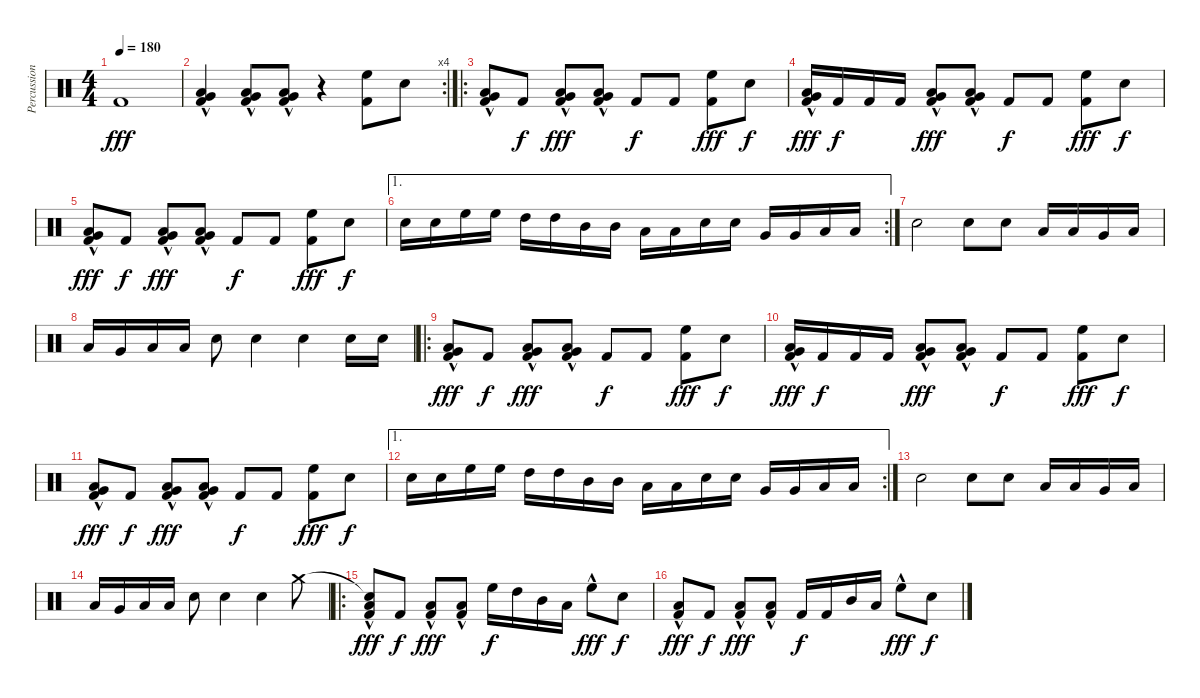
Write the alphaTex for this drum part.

\track ("Percussion" "Percussion") {instrument percussion}
\staff {score}
\articulation defaults
\ts (4 4)
\tempo 180
\clef neutral
\ks c "Kick (hit) 2".1{dy fff}
|
\rc 4
("Low Tom (hit)" "Very Low Tom (hit)"{hac} "Kick (hit) 2").4 ("Low Tom (hit)" "Very Low Tom (hit)"{hac} "Kick (hit) 2").8 ("Low Tom (hit)" "Very Low Tom (hit)"{hac} "Kick (hit) 2").8 r.4 ("High Floor Tom (hit)" "Kick (hit) 2").8 "Snare (hit) 2".8 |
\ro
("Low Tom (hit)"{hac} "Very Low Tom (hit)"{hac} "Kick (hit) 2").8 "Kick (hit) 2".8{dy f} ("Low Tom (hit)"{hac} "Very Low Tom (hit)"{hac} "Kick (hit) 2").8{dy fff} ("Low Tom (hit)"{hac} "Very Low Tom (hit)"{hac} "Kick (hit) 2").8 "Kick (hit) 2".8{dy f} "Kick (hit) 2".8 ("High Floor Tom (hit)" "Kick (hit) 2").8{dy fff} "Snare (hit) 2".8{dy f} |
("Low Tom (hit)"{hac} "Very Low Tom (hit)"{hac} "Kick (hit) 2").16{dy fff} "Kick (hit) 2".16{dy f} "Kick (hit) 2".16 "Kick (hit) 2".16 ("Low Tom (hit)"{hac} "Very Low Tom (hit)"{hac} "Kick (hit) 2").8{dy fff} ("Low Tom (hit)"{hac} "Very Low Tom (hit)"{hac} "Kick (hit) 2").8 "Kick (hit) 2".8{dy f} "Kick (hit) 2".8 ("High Floor Tom (hit)" "Kick (hit) 2").8{dy fff} "Snare (hit) 2".8{dy f} |
("Low Tom (hit)"{hac} "Very Low Tom (hit)"{hac} "Kick (hit) 2").8{dy fff} "Kick (hit) 2".8{dy f} ("Low Tom (hit)"{hac} "Very Low Tom (hit)"{hac} "Kick (hit) 2").8{dy fff} ("Low Tom (hit)"{hac} "Very Low Tom (hit)"{hac} "Kick (hit) 2").8 "Kick (hit) 2".8{dy f} "Kick (hit) 2".8 ("High Floor Tom (hit)" "Kick (hit) 2").8{dy fff} "Snare (hit) 2".8{dy f} |
\ae 1
\rc 2 "Snare (hit) 2".16 "Snare (hit) 2".16 "High Floor Tom (hit)".16 "High Floor Tom (hit)".16 "High Tom (hit)".16 "High Tom (hit)".16 "Mid Tom (hit)".16 "Mid Tom (hit)".16 "Low Tom (hit)".16 "Low Tom (hit)".16 "Snare (hit) 2".16 "Snare (hit) 2".16 "Very Low Tom (hit)".16 "Very Low Tom (hit)".16 "Low Floor Tom (hit)".16 "Low Floor Tom (hit)".16
|
"Snare (hit) 2".2 "Snare (hit) 2".8 "Snare (hit) 2".8 "Low Tom (hit)".16 "Low Tom (hit)".16 "Very Low Tom (hit)".16 "Low Floor Tom (hit)".16 |
"Low Floor Tom (hit)".16 "Very Low Tom (hit)".16 "Low Tom (hit)".16 "Low Tom (hit)".16 "Snare (hit) 2".8 "Snare (hit) 2".4 "Snare (hit) 2".4 "Snare (hit) 2".16 "Snare (hit) 2".16 |
\ro
("Low Tom (hit)"{hac} "Very Low Tom (hit)"{hac} "Kick (hit) 2").8{dy fff} "Kick (hit) 2".8{dy f} ("Low Tom (hit)"{hac} "Very Low Tom (hit)"{hac} "Kick (hit) 2").8{dy fff} ("Low Tom (hit)"{hac} "Very Low Tom (hit)"{hac} "Kick (hit) 2").8 "Kick (hit) 2".8{dy f} "Kick (hit) 2".8 ("High Floor Tom (hit)" "Kick (hit) 2").8{dy fff} "Snare (hit) 2".8{dy f} |
("Low Tom (hit)"{hac} "Very Low Tom (hit)"{hac} "Kick (hit) 2").16{dy fff} "Kick (hit) 2".16{dy f} "Kick (hit) 2".16 "Kick (hit) 2".16 ("Low Tom (hit)"{hac} "Very Low Tom (hit)"{hac} "Kick (hit) 2").8{dy fff} ("Low Tom (hit)"{hac} "Very Low Tom (hit)"{hac} "Kick (hit) 2").8 "Kick (hit) 2".8{dy f} "Kick (hit) 2".8 ("High Floor Tom (hit)" "Kick (hit) 2").8{dy fff} "Snare (hit) 2".8{dy f} |
("Low Tom (hit)"{hac} "Very Low Tom (hit)"{hac} "Kick (hit) 2").8{dy fff} "Kick (hit) 2".8{dy f} ("Low Tom (hit)"{hac} "Very Low Tom (hit)"{hac} "Kick (hit) 2").8{dy fff} ("Low Tom (hit)"{hac} "Very Low Tom (hit)"{hac} "Kick (hit) 2").8 "Kick (hit) 2".8{dy f} "Kick (hit) 2".8 ("High Floor Tom (hit)" "Kick (hit) 2").8{dy fff} "Snare (hit) 2".8{dy f} |
\ae 1
\rc 2 "Snare (hit) 2".16 "Snare (hit) 2".16 "High Floor Tom (hit)".16 "High Floor Tom (hit)".16 "High Tom (hit)".16 "High Tom (hit)".16 "Mid Tom (hit)".16 "Mid Tom (hit)".16 "Low Tom (hit)".16 "Low Tom (hit)".16 "Snare (hit) 2".16 "Snare (hit) 2".16 "Very Low Tom (hit)".16 "Very Low Tom (hit)".16 "Low Floor Tom (hit)".16 "Low Floor Tom (hit)".16
|
"Snare (hit) 2".2 "Snare (hit) 2".8 "Snare (hit) 2".8 "Low Tom (hit)".16 "Low Tom (hit)".16 "Very Low Tom (hit)".16 "Low Floor Tom (hit)".16 |
"Low Floor Tom (hit)".16 "Very Low Tom (hit)".16 "Low Tom (hit)".16 "Low Tom (hit)".16 "Snare (hit) 2".8 "Snare (hit) 2".4 "Snare (hit) 2".4 "Crash medium (hit)".8 |
\ro
("Snare (hit)"{t} "Low Tom (hit)"{hac} "Kick (hit) 2").8{dy fff} "Kick (hit) 2".8{dy f} ("Low Tom (hit)"{hac} "Kick (hit) 2").8{dy fff} ("Low Tom (hit)"{hac} "Kick (hit) 2").8 "High Floor Tom (hit)".16{dy f} "High Tom (hit)".16 "Mid Tom (hit)".16 "Low Tom (hit)".16 "High Floor Tom (hit)"{hac}.8{dy fff} "Snare (hit) 2".8{dy f} |
("Low Tom (hit)"{hac} "Kick (hit) 2").8{dy fff} "Kick (hit) 2".8{dy f} ("Low Tom (hit)"{hac} "Kick (hit) 2").8{dy fff} ("Low Tom (hit)"{hac} "Kick (hit) 2").8 "Kick (hit) 2".16{dy f} "Kick (hit) 2".16 "Mid Tom (hit)".16 "Low Tom (hit)".16 "High Floor Tom (hit)"{hac}.8{dy fff} "Snare (hit) 2".8{dy f}
